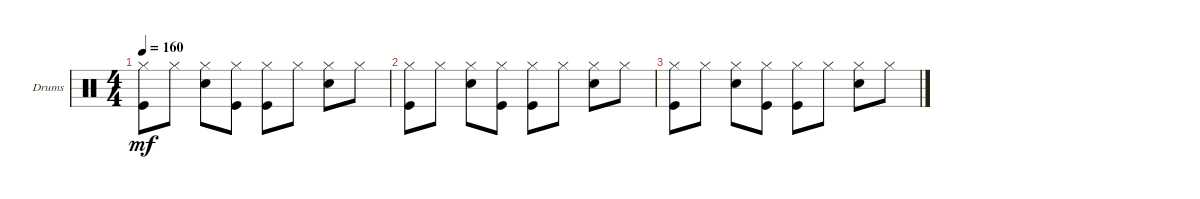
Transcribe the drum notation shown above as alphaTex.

\defaultSystemsLayout 4
\bracketExtendMode groupsimilarinstruments
\firstSystemTrackNameOrientation horizontal
\otherSystemsTrackNameOrientation horizontal
\track ("Drumkit" "Drums") {instrument percussion}
\staff {score}
\articulation defaults
\ts (4 4)
\tempo 160
\clef neutral
\scale
0.333333
\ks c
("Hi-Hat (closed)" "Kick (hit)").8{dy mf} "Hi-Hat (closed)".8 ("Hi-Hat (closed)" "Snare (hit) 2").8 ("Hi-Hat (closed)" "Kick (hit)").8 ("Hi-Hat (closed)" "Kick (hit)").8 "Hi-Hat (closed)".8 ("Hi-Hat (closed)" "Snare (hit) 2").8 "Hi-Hat (closed)".8 |
\scale
0.333333 ("Hi-Hat (closed)" "Kick (hit)").8 "Hi-Hat (closed)".8 ("Hi-Hat (closed)" "Snare (hit) 2").8 ("Hi-Hat (closed)" "Kick (hit)").8 ("Hi-Hat (closed)" "Kick (hit)").8 "Hi-Hat (closed)".8 ("Hi-Hat (closed)" "Snare (hit) 2").8 "Hi-Hat (closed)".8 |
("Hi-Hat (closed)" "Kick (hit)").8 "Hi-Hat (closed)".8 ("Hi-Hat (closed)" "Snare (hit) 2").8 ("Hi-Hat (closed)" "Kick (hit)").8 ("Hi-Hat (closed)" "Kick (hit)").8 "Hi-Hat (closed)".8 ("Hi-Hat (closed)" "Snare (hit) 2").8 "Hi-Hat (closed)".8
